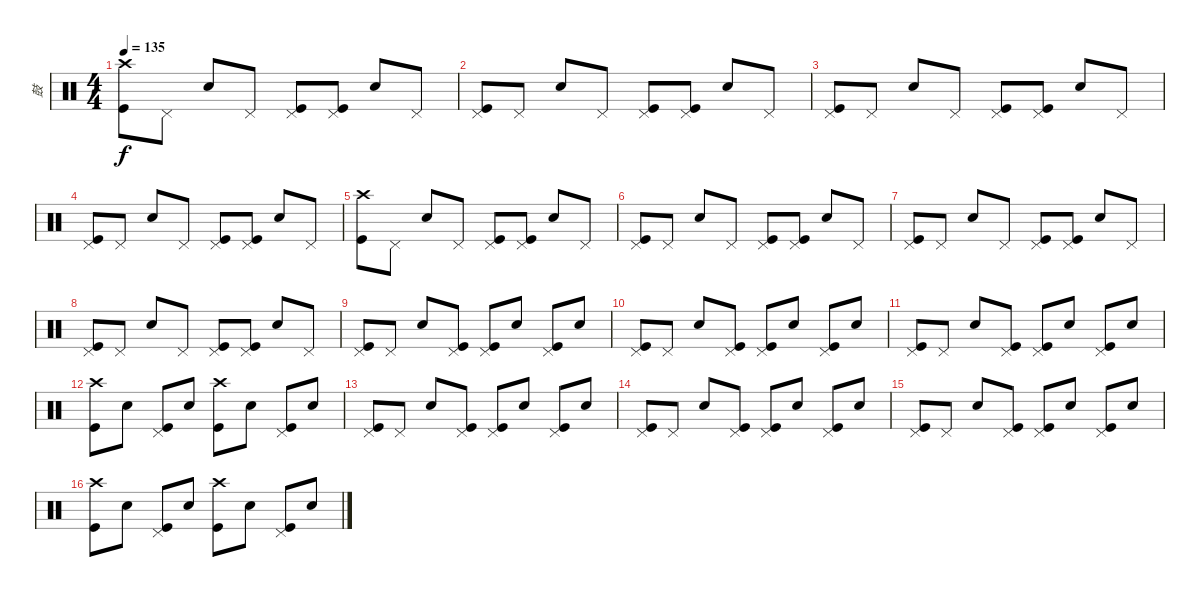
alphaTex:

\track ("鼓" "鼓") {instrument percussion}
\staff {score}
\articulation defaults
\ts (4 4)
\tempo 135
\clef neutral
\ks c
("Crash high (hit)" "Kick (hit)").8{dy f} "Pedal Hi-Hat (hit)".8 "Snare (hit) 2".8 "Pedal Hi-Hat (hit)".8 ("Pedal Hi-Hat (hit)" "Kick (hit)").8 ("Pedal Hi-Hat (hit)" "Kick (hit)").8 "Snare (hit) 2".8 "Pedal Hi-Hat (hit)".8 |
("Pedal Hi-Hat (hit)" "Kick (hit)").8 "Pedal Hi-Hat (hit)".8 "Snare (hit) 2".8 "Pedal Hi-Hat (hit)".8 ("Pedal Hi-Hat (hit)" "Kick (hit)").8 ("Pedal Hi-Hat (hit)" "Kick (hit)").8 "Snare (hit) 2".8 "Pedal Hi-Hat (hit)".8 |
("Pedal Hi-Hat (hit)" "Kick (hit)").8 "Pedal Hi-Hat (hit)".8 "Snare (hit) 2".8 "Pedal Hi-Hat (hit)".8 ("Pedal Hi-Hat (hit)" "Kick (hit)").8 ("Pedal Hi-Hat (hit)" "Kick (hit)").8 "Snare (hit) 2".8 "Pedal Hi-Hat (hit)".8 |
("Pedal Hi-Hat (hit)" "Kick (hit)").8 "Pedal Hi-Hat (hit)".8 "Snare (hit) 2".8 "Pedal Hi-Hat (hit)".8 ("Pedal Hi-Hat (hit)" "Kick (hit)").8 ("Pedal Hi-Hat (hit)" "Kick (hit)").8 "Snare (hit) 2".8 "Pedal Hi-Hat (hit)".8 |
("Crash high (hit)" "Kick (hit)").8 "Pedal Hi-Hat (hit)".8 "Snare (hit) 2".8 "Pedal Hi-Hat (hit)".8 ("Pedal Hi-Hat (hit)" "Kick (hit)").8 ("Pedal Hi-Hat (hit)" "Kick (hit)").8 "Snare (hit) 2".8 "Pedal Hi-Hat (hit)".8 |
("Pedal Hi-Hat (hit)" "Kick (hit)").8 "Pedal Hi-Hat (hit)".8 "Snare (hit) 2".8 "Pedal Hi-Hat (hit)".8 ("Pedal Hi-Hat (hit)" "Kick (hit)").8 ("Pedal Hi-Hat (hit)" "Kick (hit)").8 "Snare (hit) 2".8 "Pedal Hi-Hat (hit)".8 |
("Pedal Hi-Hat (hit)" "Kick (hit)").8 "Pedal Hi-Hat (hit)".8 "Snare (hit) 2".8 "Pedal Hi-Hat (hit)".8 ("Pedal Hi-Hat (hit)" "Kick (hit)").8 ("Pedal Hi-Hat (hit)" "Kick (hit)").8 "Snare (hit) 2".8 "Pedal Hi-Hat (hit)".8 |
("Pedal Hi-Hat (hit)" "Kick (hit)").8 "Pedal Hi-Hat (hit)".8 "Snare (hit) 2".8 "Pedal Hi-Hat (hit)".8 ("Pedal Hi-Hat (hit)" "Kick (hit)").8 ("Pedal Hi-Hat (hit)" "Kick (hit)").8 "Snare (hit) 2".8 "Pedal Hi-Hat (hit)".8 |
("Pedal Hi-Hat (hit)" "Kick (hit)").8 "Pedal Hi-Hat (hit)".8 "Snare (hit) 2".8 ("Pedal Hi-Hat (hit)" "Kick (hit)").8 ("Pedal Hi-Hat (hit)" "Kick (hit)").8 "Snare (hit) 2".8 ("Pedal Hi-Hat (hit)" "Kick (hit)").8 "Snare (hit) 2".8 |
("Pedal Hi-Hat (hit)" "Kick (hit)").8 "Pedal Hi-Hat (hit)".8 "Snare (hit) 2".8 ("Pedal Hi-Hat (hit)" "Kick (hit)").8 ("Pedal Hi-Hat (hit)" "Kick (hit)").8 "Snare (hit) 2".8 ("Pedal Hi-Hat (hit)" "Kick (hit)").8 "Snare (hit) 2".8 |
("Pedal Hi-Hat (hit)" "Kick (hit)").8 "Pedal Hi-Hat (hit)".8 "Snare (hit) 2".8 ("Pedal Hi-Hat (hit)" "Kick (hit)").8 ("Pedal Hi-Hat (hit)" "Kick (hit)").8 "Snare (hit) 2".8 ("Pedal Hi-Hat (hit)" "Kick (hit)").8 "Snare (hit) 2".8 |
("Crash high (hit)" "Kick (hit)").8 "Snare (hit) 2".8 ("Pedal Hi-Hat (hit)" "Kick (hit)").8 "Snare (hit) 2".8 ("Crash high (hit)" "Kick (hit)").8 "Snare (hit) 2".8 ("Pedal Hi-Hat (hit)" "Kick (hit)").8 "Snare (hit) 2".8 |
("Pedal Hi-Hat (hit)" "Kick (hit)").8 "Pedal Hi-Hat (hit)".8 "Snare (hit) 2".8 ("Pedal Hi-Hat (hit)" "Kick (hit)").8 ("Pedal Hi-Hat (hit)" "Kick (hit)").8 "Snare (hit) 2".8 ("Pedal Hi-Hat (hit)" "Kick (hit)").8 "Snare (hit) 2".8 |
("Pedal Hi-Hat (hit)" "Kick (hit)").8 "Pedal Hi-Hat (hit)".8 "Snare (hit) 2".8 ("Pedal Hi-Hat (hit)" "Kick (hit)").8 ("Pedal Hi-Hat (hit)" "Kick (hit)").8 "Snare (hit) 2".8 ("Pedal Hi-Hat (hit)" "Kick (hit)").8 "Snare (hit) 2".8 |
("Pedal Hi-Hat (hit)" "Kick (hit)").8 "Pedal Hi-Hat (hit)".8 "Snare (hit) 2".8 ("Pedal Hi-Hat (hit)" "Kick (hit)").8 ("Pedal Hi-Hat (hit)" "Kick (hit)").8 "Snare (hit) 2".8 ("Pedal Hi-Hat (hit)" "Kick (hit)").8 "Snare (hit) 2".8 |
("Crash high (hit)" "Kick (hit)").8 "Snare (hit) 2".8 ("Pedal Hi-Hat (hit)" "Kick (hit)").8 "Snare (hit) 2".8 ("Crash high (hit)" "Kick (hit)").8 "Snare (hit) 2".8 ("Pedal Hi-Hat (hit)" "Kick (hit)").8 "Snare (hit) 2".8
